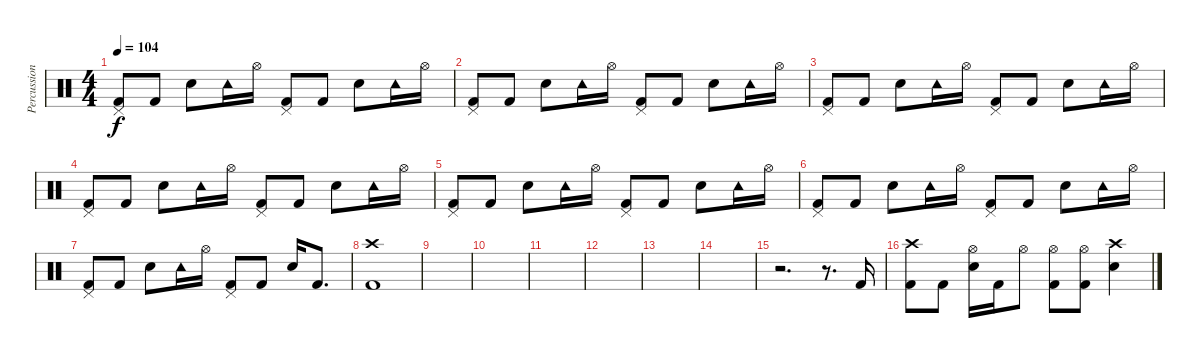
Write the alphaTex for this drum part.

\track ("Percussions" "Percussion") {instrument percussion}
\staff {score}
\articulation defaults
\ts (4 4)
\tempo 104
\clef neutral
\ks c
("Pedal Hi-Hat (hit)" "Kick (hit) 2").8{dy f} "Kick (hit) 2".8 "Snare (hit) 2".8 "Tambourine (hit)".16 "Hi-Hat (open)".16 ("Pedal Hi-Hat (hit)" "Kick (hit) 2").8 "Kick (hit) 2".8 "Snare (hit) 2".8 "Tambourine (hit)".16 "Hi-Hat (open)".16 |
("Pedal Hi-Hat (hit)" "Kick (hit) 2").8 "Kick (hit) 2".8 "Snare (hit) 2".8 "Tambourine (hit)".16 "Hi-Hat (open)".16 ("Pedal Hi-Hat (hit)" "Kick (hit) 2").8 "Kick (hit) 2".8 "Snare (hit) 2".8 "Tambourine (hit)".16 "Hi-Hat (open)".16 |
("Pedal Hi-Hat (hit)" "Kick (hit) 2").8 "Kick (hit) 2".8 "Snare (hit) 2".8 "Tambourine (hit)".16 "Hi-Hat (open)".16 ("Pedal Hi-Hat (hit)" "Kick (hit) 2").8 "Kick (hit) 2".8 "Snare (hit) 2".8 "Tambourine (hit)".16 "Hi-Hat (open)".16 |
("Pedal Hi-Hat (hit)" "Kick (hit) 2").8 "Kick (hit) 2".8 "Snare (hit) 2".8 "Tambourine (hit)".16 "Hi-Hat (open)".16 ("Pedal Hi-Hat (hit)" "Kick (hit) 2").8 "Kick (hit) 2".8 "Snare (hit) 2".8 "Tambourine (hit)".16 "Hi-Hat (open)".16 |
("Pedal Hi-Hat (hit)" "Kick (hit) 2").8 "Kick (hit) 2".8 "Snare (hit) 2".8 "Tambourine (hit)".16 "Hi-Hat (open)".16 ("Pedal Hi-Hat (hit)" "Kick (hit) 2").8 "Kick (hit) 2".8 "Snare (hit) 2".8 "Tambourine (hit)".16 "Hi-Hat (open)".16 |
("Pedal Hi-Hat (hit)" "Kick (hit) 2").8 "Kick (hit) 2".8 "Snare (hit) 2".8 "Tambourine (hit)".16 "Hi-Hat (open)".16 ("Pedal Hi-Hat (hit)" "Kick (hit) 2").8 "Kick (hit) 2".8 "Snare (hit) 2".8 "Tambourine (hit)".16 "Hi-Hat (open)".16 |
("Pedal Hi-Hat (hit)" "Kick (hit) 2").8 "Kick (hit) 2".8 "Snare (hit) 2".8 "Tambourine (hit)".16 "Hi-Hat (open)".16 ("Pedal Hi-Hat (hit)" "Kick (hit) 2").8 "Kick (hit) 2".8 "Snare (hit) 2".16 "Kick (hit) 2".8{d} |
("Crash high (hit)" "Kick (hit) 2").1 |
|
|
|
|
|
|
r.2{d} r.8{d} "Kick (hit) 2".16 |
("Crash high (hit)" "Kick (hit) 2").8 "Kick (hit) 2".8 ("Hi-Hat (open)" "Snare (hit) 2").16 "Kick (hit) 2".16 "Hi-Hat (open)".8 ("Hi-Hat (open)" "Kick (hit) 2").8 ("Hi-Hat (open)" "Kick (hit) 2").8 ("Crash high (hit)" "Snare (hit) 2").4
